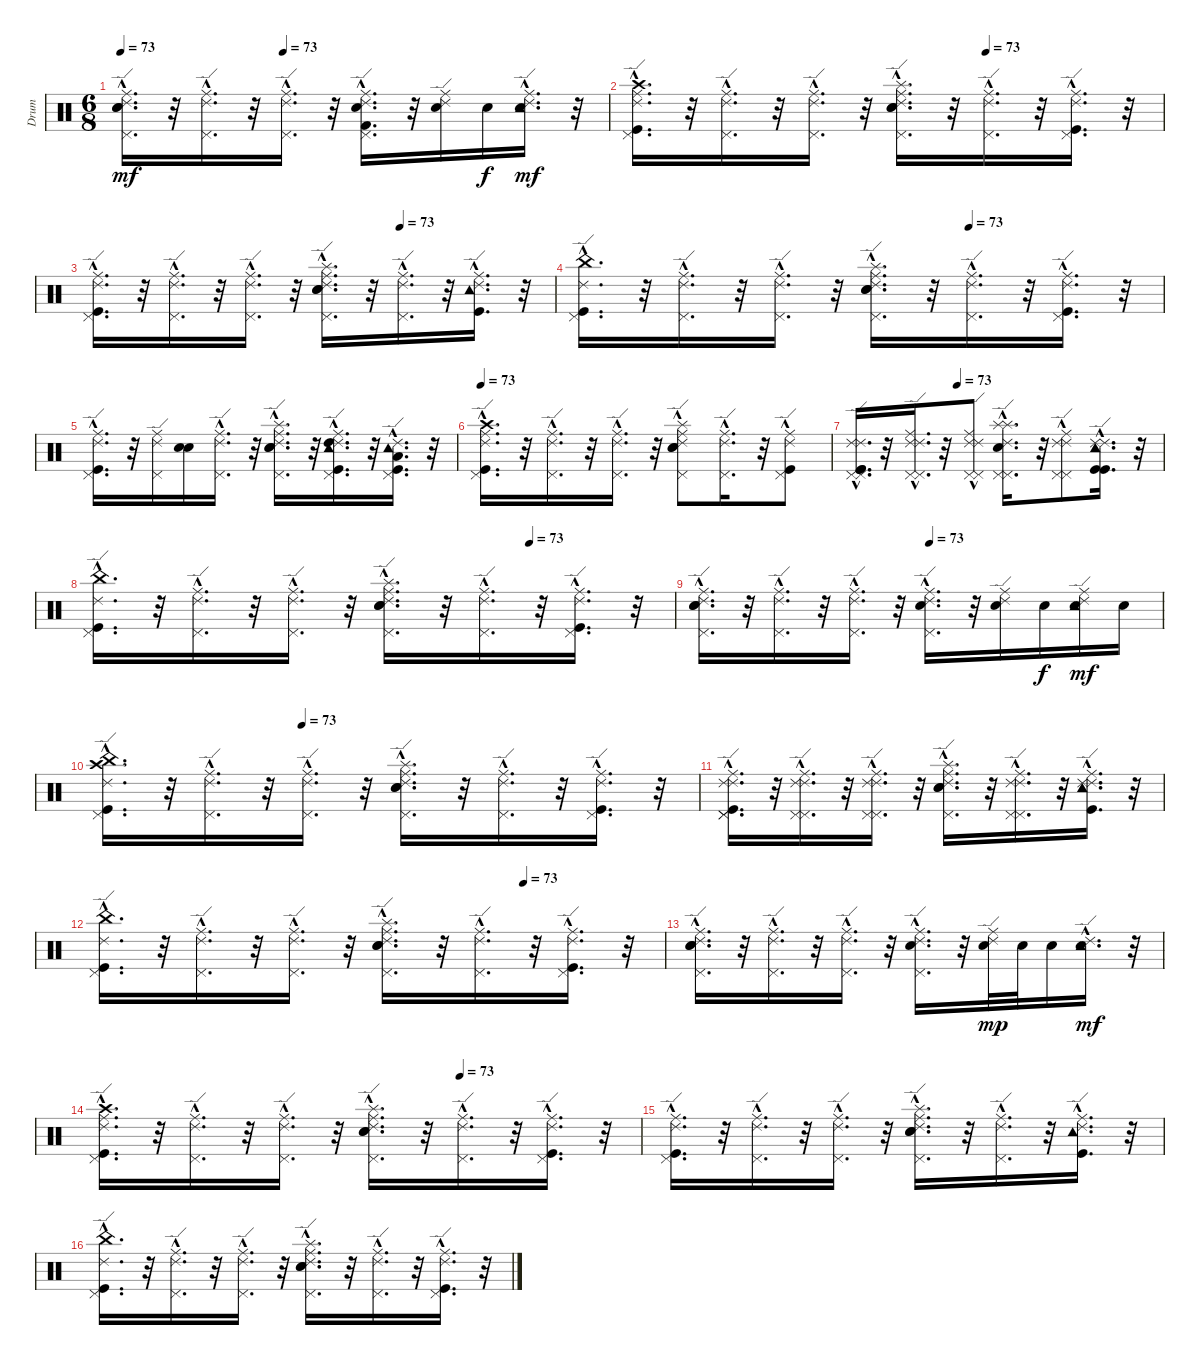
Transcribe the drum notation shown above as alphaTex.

\track ("Drum" "Drum") {instrument percussion}
\staff {score}
\articulation defaults
\ts (6 8)
\tempo 73
\tempo (73 0.3333333333333333)
\clef neutral
\ks c
("Ride (middle)"{hac} "Electric Snare (hit)"{hac} "Pedal Hi-Hat (hit)"{hac} "Snare (hit) 2"{hac} "Ride (edge) 2"{hac}).16{d dy mf} r.32 ("Ride (middle)"{hac} "Pedal Hi-Hat (hit)"{hac} "Ride (edge) 2"{hac}).16{d} r.32 ("Ride (middle)"{hac} "Pedal Hi-Hat (hit)"{hac} "Ride (edge) 2"{hac}).16{d} r.32 ("Ride (middle)"{hac} "Pedal Hi-Hat (hit)"{hac} "Electric Snare (hit)"{hac} "Ride (edge) 2"{hac} "Kick (hit) 2"{hac}).16{d} r.32 ("Ride (edge) 2" "Snare (hit) 2" "Ride (middle)").16 "Snare (hit) 2".16{dy f} ("Ride (edge) 2"{hac} "Snare (hit) 2"{hac} "Ride (middle)"{hac} "Tambourine (hit)"{hac}).16{d dy mf} r.32 |
\tempo (73 0.6666666666666666)
("Ride (edge) 2"{hac} "Crash high (hit)"{hac} "Kick (hit)"{hac} "Ride (middle)"{hac} "Pedal Hi-Hat (hit)"{hac}).16{d} r.32 ("Ride (middle)"{hac} "Pedal Hi-Hat (hit)"{hac} "Ride (edge) 2"{hac}).16{d} r.32 ("Ride (edge) 2"{hac} "Ride (middle)"{hac} "Pedal Hi-Hat (hit)"{hac}).16{d} r.32 ("Ride (edge) 2"{hac} "Ride (middle)"{hac} "Splash (hit)"{hac} "Snare (hit) 2"{hac} "Pedal Hi-Hat (hit)"{hac} "Electric Snare (hit)"{hac}).16{d} r.32 ("Ride (edge) 2"{hac} "Ride (middle)"{hac} "Pedal Hi-Hat (hit)"{hac}).16{d} r.32 ("Pedal Hi-Hat (hit)"{hac} "Kick (hit)"{hac} "Ride (edge) 2"{hac} "Ride (middle)"{hac}).16{d} r.32 |
\tempo (73 0.6666666666666666)
("Ride (middle)"{hac} "Kick (hit)"{hac} "Ride (edge) 2"{hac} "Pedal Hi-Hat (hit)"{hac}).16{d} r.32 ("Ride (edge) 2"{hac} "Ride (middle)"{hac} "Pedal Hi-Hat (hit)"{hac}).16{d} r.32 ("Ride (edge) 2"{hac} "Ride (middle)"{hac} "Pedal Hi-Hat (hit)"{hac}).16{d} r.32 ("Splash (hit)"{hac} "Pedal Hi-Hat (hit)"{hac} "Snare (hit) 2"{hac} "Ride (middle)"{hac} "Ride (edge) 2"{hac} "Electric Snare (hit)"{hac}).16{d} r.32 ("Ride (edge) 2"{hac} "Ride (middle)"{hac} "Pedal Hi-Hat (hit)"{hac}).16{d} r.32 ("Kick (hit)"{hac} "Ride (middle)"{hac} "Tambourine (hit)"{hac} "Ride (edge) 2"{hac}).16{d} r.32 |
\tempo (73 0.6666666666666666)
("Kick (hit)"{hac} "Pedal Hi-Hat (hit)"{hac} "China (hit)"{hac} "Ride (edge) 2"{hac}).16{d} r.32 ("Ride (middle)"{hac} "Pedal Hi-Hat (hit)"{hac} "Ride (edge) 2"{hac}).16{d} r.32 ("Ride (middle)"{hac} "Ride (edge) 2"{hac} "Pedal Hi-Hat (hit)"{hac}).16{d} r.32 ("Ride (edge) 2"{hac} "Snare (hit) 2"{hac} "Splash (hit)"{hac} "Electric Snare (hit)"{hac} "Pedal Hi-Hat (hit)"{hac} "Ride (middle)"{hac}).16{d} r.32 ("Ride (edge) 2"{hac} "Ride (middle)"{hac} "Pedal Hi-Hat (hit)"{hac}).16{d} r.32 ("Kick (hit)"{hac} "Pedal Hi-Hat (hit)"{hac} "Ride (middle)"{hac} "Ride (edge) 2"{hac}).16{d} r.32 |
("Ride (edge) 2"{hac} "Pedal Hi-Hat (hit)"{hac} "Kick (hit)"{hac} "Ride (middle)"{hac}).16{d} r.32 ("Pedal Hi-Hat (hit)" "Ride (edge) 2" "Ride (middle)").16 ("Snare (hit) 2" "Electric Snare (hit)").16 ("Ride (edge) 2"{hac} "Pedal Hi-Hat (hit)"{hac} "Ride (middle)"{hac}).16{d} r.32 ("Ride (edge) 2"{hac} "Snare (hit) 2"{hac} "Splash (hit)"{hac} "Pedal Hi-Hat (hit)"{hac} "Electric Snare (hit)"{hac} "Ride (middle)"{hac}).16{d} r.32 ("Ride (edge) 2"{hac} "Pedal Hi-Hat (hit)"{hac} "Kick (hit)"{hac} "High Tom (hit)"{hac} "Ride (middle)"{hac} "Tambourine (hit)"{hac}).16{d} r.32 ("Ride (edge) 2"{hac} "Pedal Hi-Hat (hit)"{hac} "Kick (hit)"{hac} "Low Tom (hit)"{hac} "Tambourine (hit)"{hac}).16{d} r.32 |
\tempo 73
("Crash high (hit)"{hac} "Pedal Hi-Hat (hit)"{hac} "Kick (hit)"{hac} "Ride (edge) 2"{hac} "Ride (middle)"{hac}).16{d} r.32 ("Ride (edge) 2"{hac} "Pedal Hi-Hat (hit)"{hac} "Ride (middle)"{hac}).16{d} r.32 ("Pedal Hi-Hat (hit)"{hac} "Ride (edge) 2"{hac} "Ride (middle)"{hac}).16{d} r.32 ("Splash (hit)"{hac} "Pedal Hi-Hat (hit)"{hac} "Snare (hit) 2"{hac} "Ride (edge) 2"{hac} "Electric Snare (hit)"{hac} "Ride (middle)"{hac}).8 ("Pedal Hi-Hat (hit)"{hac} "Ride (edge) 2"{hac} "Ride (middle)"{hac}).16{d} r.32 ("Pedal Hi-Hat (hit)"{hac} "Kick (hit)"{hac} "Ride (edge) 2"{hac} "Ride (middle)"{hac}).8 |
\tempo (73 0.3333333333333333)
("Kick (hit)"{hac} "Pedal Hi-Hat (hit)"{hac} "Ride (edge) 2"{hac} "Pedal Hi-Hat (hit)"{hac} "Ride (edge) 2"{hac} "Kick (hit)"{hac}).16{d} r.32 ("Pedal Hi-Hat (hit)"{hac} "Ride (edge) 2"{hac} "Ride (edge) 2"{hac} "Pedal Hi-Hat (hit)"{hac} "Ride (middle)"{hac}).16{d} r.32 ("Ride (edge) 2"{hac} "Pedal Hi-Hat (hit)"{hac} "Pedal Hi-Hat (hit)"{hac} "Ride (edge) 2"{hac} "Ride (middle)"{hac}).8 ("Snare (hit) 2"{hac} "Splash (hit)"{hac} "Ride (edge) 2"{hac} "Pedal Hi-Hat (hit)"{hac} "Splash (hit)"{hac} "Pedal Hi-Hat (hit)"{hac}).16{d} r.32 ("Pedal Hi-Hat (hit)"{hac} "Ride (edge) 2"{hac} "Pedal Hi-Hat (hit)"{hac} "Ride (edge) 2"{hac} "Ride (middle)"{hac}).8 ("Kick (hit)"{hac} "Tambourine (hit)"{hac} "Ride (edge) 2"{hac} "Tambourine (hit)"{hac} "Ride (edge) 2"{hac} "Kick (hit)"{hac}).16{d} r.32 |
\tempo (73 0.75)
("Pedal Hi-Hat (hit)"{hac} "Ride (edge) 2"{hac} "Kick (hit)"{hac} "China (hit)"{hac}).16{d} r.32 ("Ride (edge) 2"{hac} "Pedal Hi-Hat (hit)"{hac} "Ride (middle)"{hac}).16{d} r.32 ("Ride (edge) 2"{hac} "Pedal Hi-Hat (hit)"{hac} "Ride (middle)"{hac}).16{d} r.32 ("Snare (hit) 2"{hac} "Electric Snare (hit)"{hac} "Pedal Hi-Hat (hit)"{hac} "Ride (edge) 2"{hac} "Splash (hit)"{hac} "Ride (middle)"{hac}).16{d} r.32 ("Ride (edge) 2"{hac} "Pedal Hi-Hat (hit)"{hac} "Ride (middle)"{hac}).16{d} r.32 ("Pedal Hi-Hat (hit)"{hac} "Ride (edge) 2"{hac} "Kick (hit)"{hac} "Ride (middle)"{hac}).16{d} r.32 |
\tempo (73 0.5)
("Ride (edge) 2"{hac} "Snare (hit) 2"{hac} "Pedal Hi-Hat (hit)"{hac} "Electric Snare (hit)"{hac} "Ride (middle)"{hac}).16{d} r.32 ("Ride (edge) 2"{hac} "Pedal Hi-Hat (hit)"{hac} "Ride (middle)"{hac}).16{d} r.32 ("Ride (edge) 2"{hac} "Pedal Hi-Hat (hit)"{hac} "Ride (middle)"{hac}).16{d} r.32 ("Ride (edge) 2"{hac} "Snare (hit) 2"{hac} "Pedal Hi-Hat (hit)"{hac} "Ride (middle)"{hac}).16{d} r.32 ("Ride (middle)" "Snare (hit) 2" "Ride (edge) 2").16 "Snare (hit) 2".16{dy f} ("Tambourine (hit)" "Ride (middle)" "Snare (hit) 2" "Ride (edge) 2").16{dy mf} "Snare (hit) 2".16 |
\tempo (73 0.3333333333333333)
("China (hit)"{hac} "Ride (edge) 2"{hac} "Kick (hit)"{hac} "Pedal Hi-Hat (hit)"{hac} "Crash high (hit)"{hac}).16{d} r.32 ("Ride (middle)"{hac} "Pedal Hi-Hat (hit)"{hac} "Ride (edge) 2"{hac}).16{d} r.32 ("Ride (middle)"{hac} "Ride (edge) 2"{hac} "Pedal Hi-Hat (hit)"{hac}).16{d} r.32 ("Ride (middle)"{hac} "Electric Snare (hit)"{hac} "Ride (edge) 2"{hac} "Snare (hit) 2"{hac} "Pedal Hi-Hat (hit)"{hac} "Splash (hit)"{hac}).16{d} r.32 ("Ride (middle)"{hac} "Ride (edge) 2"{hac} "Pedal Hi-Hat (hit)"{hac}).16{d} r.32 ("Ride (middle)"{hac} "Ride (edge) 2"{hac} "Kick (hit)"{hac} "Pedal Hi-Hat (hit)"{hac}).16{d} r.32 |
("Ride (middle)"{hac} "Kick (hit)"{hac} "Ride (edge) 2"{hac} "Pedal Hi-Hat (hit)"{hac} "Ride (edge) 2"{hac} "Pedal Hi-Hat (hit)"{hac}).16{d} r.32 ("Ride (middle)"{hac} "Pedal Hi-Hat (hit)"{hac} "Ride (edge) 2"{hac} "Ride (edge) 2"{hac} "Pedal Hi-Hat (hit)"{hac}).16{d} r.32 ("Ride (middle)"{hac} "Ride (edge) 2"{hac} "Pedal Hi-Hat (hit)"{hac} "Pedal Hi-Hat (hit)"{hac} "Ride (edge) 2"{hac}).16{d} r.32 ("Ride (middle)"{hac} "Electric Snare (hit)"{hac} "Ride (edge) 2"{hac} "Snare (hit) 2"{hac} "Pedal Hi-Hat (hit)"{hac} "Splash (hit)"{hac}).16{d} r.32 ("Ride (middle)"{hac} "Ride (edge) 2"{hac} "Pedal Hi-Hat (hit)"{hac} "Ride (edge) 2"{hac} "Pedal Hi-Hat (hit)"{hac}).16{d} r.32 ("Ride (middle)"{hac} "Kick (hit)"{hac} "Ride (edge) 2"{hac} "Tambourine (hit)"{hac} "Ride (edge) 2"{hac} "Tambourine (hit)"{hac}).16{d} r.32 |
\tempo (73 0.75)
("China (hit)"{hac} "Kick (hit)"{hac} "Ride (edge) 2"{hac} "Pedal Hi-Hat (hit)"{hac}).16{d} r.32 ("Ride (middle)"{hac} "Pedal Hi-Hat (hit)"{hac} "Ride (edge) 2"{hac}).16{d} r.32 ("Ride (middle)"{hac} "Pedal Hi-Hat (hit)"{hac} "Ride (edge) 2"{hac}).16{d} r.32 ("Ride (middle)"{hac} "Splash (hit)"{hac} "Ride (edge) 2"{hac} "Pedal Hi-Hat (hit)"{hac} "Electric Snare (hit)"{hac} "Snare (hit) 2"{hac}).16{d} r.32 ("Ride (middle)"{hac} "Pedal Hi-Hat (hit)"{hac} "Ride (edge) 2"{hac}).16{d} r.32 ("Ride (middle)"{hac} "Kick (hit)"{hac} "Ride (edge) 2"{hac} "Pedal Hi-Hat (hit)"{hac}).16{d} r.32 |
("Ride (middle)"{hac} "Electric Snare (hit)"{hac} "Pedal Hi-Hat (hit)"{hac} "Snare (hit) 2"{hac} "Ride (edge) 2"{hac}).16{d} r.32 ("Ride (middle)"{hac} "Pedal Hi-Hat (hit)"{hac} "Ride (edge) 2"{hac}).16{d} r.32 ("Ride (middle)"{hac} "Pedal Hi-Hat (hit)"{hac} "Ride (edge) 2"{hac}).16{d} r.32 ("Ride (middle)"{hac} "Pedal Hi-Hat (hit)"{hac} "Snare (hit) 2"{hac} "Ride (edge) 2"{hac}).16{d} r.32 ("Ride (middle)" "Ride (edge) 2" "Snare (hit) 2").32{dy mp} "Snare (hit) 2".32 "Snare (hit) 2".16 ("Snare (hit) 2"{hac} "Tambourine (hit)"{hac} "Ride (edge) 2"{hac}).16{d dy mf} r.32 |
\tempo (73 0.6666666666666666)
("Ride (edge) 2"{hac} "Crash high (hit)"{hac} "Kick (hit)"{hac} "Ride (middle)"{hac} "Pedal Hi-Hat (hit)"{hac}).16{d} r.32 ("Ride (middle)"{hac} "Pedal Hi-Hat (hit)"{hac} "Ride (edge) 2"{hac}).16{d} r.32 ("Ride (edge) 2"{hac} "Ride (middle)"{hac} "Pedal Hi-Hat (hit)"{hac}).16{d} r.32 ("Ride (edge) 2"{hac} "Ride (middle)"{hac} "Splash (hit)"{hac} "Snare (hit) 2"{hac} "Pedal Hi-Hat (hit)"{hac} "Electric Snare (hit)"{hac}).16{d} r.32 ("Ride (edge) 2"{hac} "Ride (middle)"{hac} "Pedal Hi-Hat (hit)"{hac}).16{d} r.32 ("Pedal Hi-Hat (hit)"{hac} "Kick (hit)"{hac} "Ride (edge) 2"{hac} "Ride (middle)"{hac}).16{d} r.32 |
("Ride (middle)"{hac} "Kick (hit)"{hac} "Ride (edge) 2"{hac} "Pedal Hi-Hat (hit)"{hac}).16{d} r.32 ("Ride (edge) 2"{hac} "Ride (middle)"{hac} "Pedal Hi-Hat (hit)"{hac}).16{d} r.32 ("Ride (edge) 2"{hac} "Ride (middle)"{hac} "Pedal Hi-Hat (hit)"{hac}).16{d} r.32 ("Splash (hit)"{hac} "Pedal Hi-Hat (hit)"{hac} "Snare (hit) 2"{hac} "Ride (middle)"{hac} "Ride (edge) 2"{hac} "Electric Snare (hit)"{hac}).16{d} r.32 ("Ride (edge) 2"{hac} "Ride (middle)"{hac} "Pedal Hi-Hat (hit)"{hac}).16{d} r.32 ("Kick (hit)"{hac} "Ride (middle)"{hac} "Tambourine (hit)"{hac} "Ride (edge) 2"{hac}).16{d} r.32 |
("Ride (edge) 2"{hac} "Pedal Hi-Hat (hit)"{hac} "Kick (hit)"{hac} "China (hit)"{hac}).16{d} r.32 ("Pedal Hi-Hat (hit)"{hac} "Ride (edge) 2"{hac} "Ride (middle)"{hac}).16{d} r.32 ("Ride (edge) 2"{hac} "Pedal Hi-Hat (hit)"{hac} "Ride (middle)"{hac}).16{d} r.32 ("Snare (hit) 2"{hac} "Ride (edge) 2"{hac} "Splash (hit)"{hac} "Pedal Hi-Hat (hit)"{hac} "Electric Snare (hit)"{hac} "Ride (middle)"{hac}).16{d} r.32 ("Ride (edge) 2"{hac} "Pedal Hi-Hat (hit)"{hac} "Ride (middle)"{hac}).16{d} r.32 ("Pedal Hi-Hat (hit)"{hac} "Ride (edge) 2"{hac} "Kick (hit)"{hac} "Ride (middle)"{hac}).16{d} r.32
